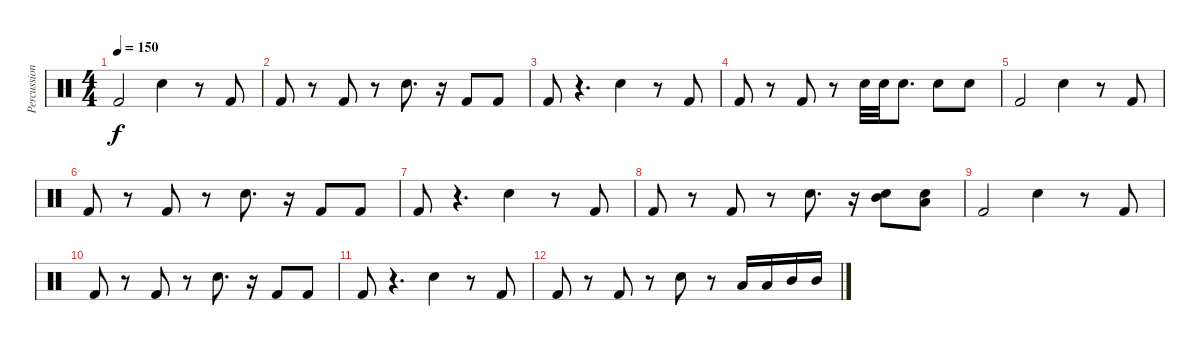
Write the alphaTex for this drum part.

\track ("Percussion" "Percussion") {instrument percussion}
\staff {score}
\articulation defaults
\ts (4 4)
\tempo 150
\clef neutral
\ks c "Kick (hit) 2".2{dy f} "Electric Snare (hit)".4
r.8 "Kick (hit) 2".8 |
"Kick (hit) 2".8 r.8 "Kick (hit) 2".8 r.8 "Electric Snare (hit)".8{d} r.16 "Kick (hit) 2".8 "Kick (hit) 2".8 |
"Kick (hit) 2".8 r.4{d} "Electric Snare (hit)".4 r.8 "Kick (hit) 2".8 |
"Kick (hit) 2".8 r.8 "Kick (hit) 2".8 r.8 "Electric Snare (hit)".32 "Electric Snare (hit)".32 "Electric Snare (hit)".8{d} "Electric Snare (hit)".8 "Electric Snare (hit)".8 |
"Kick (hit) 2".2 "Electric Snare (hit)".4 r.8 "Kick (hit) 2".8 |
"Kick (hit) 2".8 r.8 "Kick (hit) 2".8 r.8 "Electric Snare (hit)".8{d} r.16 "Kick (hit) 2".8 "Kick (hit) 2".8 |
"Kick (hit) 2".8 r.4{d} "Electric Snare (hit)".4 r.8 "Kick (hit) 2".8 |
"Kick (hit) 2".8 r.8 "Kick (hit) 2".8 r.8 "Electric Snare (hit)".8{d} r.16 ("Electric Snare (hit)" "Mid Tom (hit)").8 ("Electric Snare (hit)" "Low Tom (hit)").8 |
"Kick (hit) 2".2 "Electric Snare (hit)".4 r.8 "Kick (hit) 2".8 |
"Kick (hit) 2".8 r.8 "Kick (hit) 2".8 r.8 "Electric Snare (hit)".8{d} r.16 "Kick (hit) 2".8 "Kick (hit) 2".8 |
"Kick (hit) 2".8 r.4{d} "Electric Snare (hit)".4 r.8 "Kick (hit) 2".8 |
"Kick (hit) 2".8 r.8 "Kick (hit) 2".8 r.8 "Electric Snare (hit)".8 r.8 "Low Tom (hit)".16 "Low Tom (hit)".16 "Mid Tom (hit)".16 "Mid Tom (hit)".16
